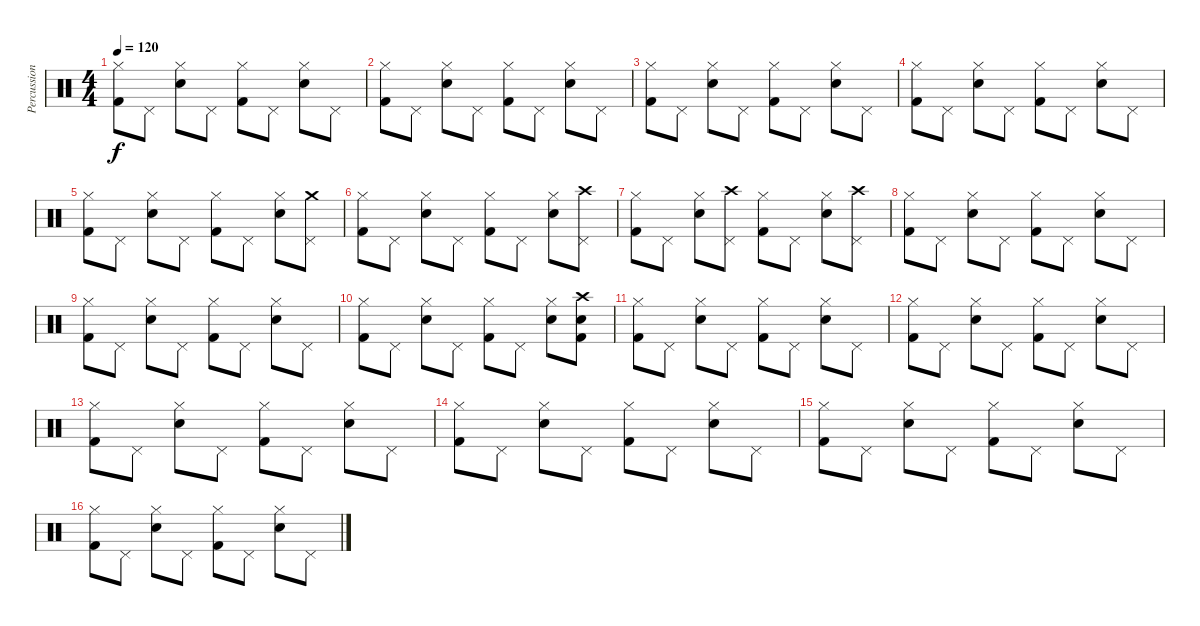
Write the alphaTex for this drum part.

\track ("Percussion" "Percussion") {instrument percussion}
\staff {score}
\articulation defaults
\ts (4 4)
\tempo 120
\clef neutral
\ks c
("Kick (hit) 2" "Hi-Hat (closed)").8{dy f} "Pedal Hi-Hat (hit)".8 ("Snare (hit) 2" "Hi-Hat (closed)").8 "Pedal Hi-Hat (hit)".8 ("Kick (hit) 2" "Hi-Hat (closed)").8 "Pedal Hi-Hat (hit)".8 ("Snare (hit) 2" "Hi-Hat (closed)").8 "Pedal Hi-Hat (hit)".8 |
("Kick (hit) 2" "Hi-Hat (closed)").8 "Pedal Hi-Hat (hit)".8 ("Snare (hit) 2" "Hi-Hat (closed)").8 "Pedal Hi-Hat (hit)".8 ("Kick (hit) 2" "Hi-Hat (closed)").8 "Pedal Hi-Hat (hit)".8 ("Snare (hit) 2" "Hi-Hat (closed)").8 "Pedal Hi-Hat (hit)".8 |
("Kick (hit) 2" "Hi-Hat (closed)").8 "Pedal Hi-Hat (hit)".8 ("Snare (hit) 2" "Hi-Hat (closed)").8 "Pedal Hi-Hat (hit)".8 ("Kick (hit) 2" "Hi-Hat (closed)").8 "Pedal Hi-Hat (hit)".8 ("Snare (hit) 2" "Hi-Hat (closed)").8 "Pedal Hi-Hat (hit)".8 |
("Kick (hit) 2" "Hi-Hat (closed)").8 "Pedal Hi-Hat (hit)".8 ("Snare (hit) 2" "Hi-Hat (closed)").8 "Pedal Hi-Hat (hit)".8 ("Kick (hit) 2" "Hi-Hat (closed)").8 "Pedal Hi-Hat (hit)".8 ("Snare (hit) 2" "Hi-Hat (closed)").8 "Pedal Hi-Hat (hit)".8 |
("Kick (hit) 2" "Hi-Hat (closed)").8 "Pedal Hi-Hat (hit)".8 ("Snare (hit) 2" "Hi-Hat (closed)").8 "Pedal Hi-Hat (hit)".8 ("Kick (hit) 2" "Hi-Hat (closed)").8 "Pedal Hi-Hat (hit)".8 ("Snare (hit) 2" "Hi-Hat (closed)").8 ("Pedal Hi-Hat (hit)" "Crash medium (hit)").8 |
("Kick (hit) 2" "Hi-Hat (closed)").8 "Pedal Hi-Hat (hit)".8 ("Snare (hit) 2" "Hi-Hat (closed)").8 "Pedal Hi-Hat (hit)".8 ("Kick (hit) 2" "Hi-Hat (closed)").8 "Pedal Hi-Hat (hit)".8 ("Snare (hit) 2" "Hi-Hat (closed)").8 ("Pedal Hi-Hat (hit)" "Crash high (hit)").8 |
("Kick (hit) 2" "Hi-Hat (closed)").8 "Pedal Hi-Hat (hit)".8 ("Snare (hit) 2" "Hi-Hat (closed)").8 ("Pedal Hi-Hat (hit)" "Crash high (hit)").8 ("Kick (hit) 2" "Hi-Hat (closed)").8 "Pedal Hi-Hat (hit)".8 ("Snare (hit) 2" "Hi-Hat (closed)").8 ("Pedal Hi-Hat (hit)" "Crash high (hit)").8 |
("Kick (hit) 2" "Hi-Hat (closed)").8 "Pedal Hi-Hat (hit)".8 ("Snare (hit) 2" "Hi-Hat (closed)").8 "Pedal Hi-Hat (hit)".8 ("Kick (hit) 2" "Hi-Hat (closed)").8 "Pedal Hi-Hat (hit)".8 ("Snare (hit) 2" "Hi-Hat (closed)").8 "Pedal Hi-Hat (hit)".8 |
("Kick (hit) 2" "Hi-Hat (closed)").8 "Pedal Hi-Hat (hit)".8 ("Snare (hit) 2" "Hi-Hat (closed)").8 "Pedal Hi-Hat (hit)".8 ("Kick (hit) 2" "Hi-Hat (closed)").8 "Pedal Hi-Hat (hit)".8 ("Snare (hit) 2" "Hi-Hat (closed)").8 "Pedal Hi-Hat (hit)".8 |
("Kick (hit) 2" "Hi-Hat (closed)").8 "Pedal Hi-Hat (hit)".8 ("Snare (hit) 2" "Hi-Hat (closed)").8 "Pedal Hi-Hat (hit)".8 ("Kick (hit) 2" "Hi-Hat (closed)").8 "Pedal Hi-Hat (hit)".8 ("Snare (hit) 2" "Hi-Hat (closed)").8 ("Kick (hit) 2" "Snare (hit) 2" "Crash high (hit)").8 |
("Kick (hit) 2" "Hi-Hat (closed)").8 "Pedal Hi-Hat (hit)".8 ("Snare (hit) 2" "Hi-Hat (closed)").8 "Pedal Hi-Hat (hit)".8 ("Kick (hit) 2" "Hi-Hat (closed)").8 "Pedal Hi-Hat (hit)".8 ("Snare (hit) 2" "Hi-Hat (closed)").8 "Pedal Hi-Hat (hit)".8 |
("Kick (hit) 2" "Hi-Hat (closed)").8 "Pedal Hi-Hat (hit)".8 ("Snare (hit) 2" "Hi-Hat (closed)").8 "Pedal Hi-Hat (hit)".8 ("Kick (hit) 2" "Hi-Hat (closed)").8 "Pedal Hi-Hat (hit)".8 ("Snare (hit) 2" "Hi-Hat (closed)").8 "Pedal Hi-Hat (hit)".8 |
("Kick (hit) 2" "Hi-Hat (closed)").8 "Pedal Hi-Hat (hit)".8 ("Snare (hit) 2" "Hi-Hat (closed)").8 "Pedal Hi-Hat (hit)".8 ("Kick (hit) 2" "Hi-Hat (closed)").8 "Pedal Hi-Hat (hit)".8 ("Snare (hit) 2" "Hi-Hat (closed)").8 "Pedal Hi-Hat (hit)".8 |
("Kick (hit) 2" "Hi-Hat (closed)").8 "Pedal Hi-Hat (hit)".8 ("Snare (hit) 2" "Hi-Hat (closed)").8 "Pedal Hi-Hat (hit)".8 ("Kick (hit) 2" "Hi-Hat (closed)").8 "Pedal Hi-Hat (hit)".8 ("Snare (hit) 2" "Hi-Hat (closed)").8 "Pedal Hi-Hat (hit)".8 |
("Kick (hit) 2" "Hi-Hat (closed)").8 "Pedal Hi-Hat (hit)".8 ("Snare (hit) 2" "Hi-Hat (closed)").8 "Pedal Hi-Hat (hit)".8 ("Kick (hit) 2" "Hi-Hat (closed)").8 "Pedal Hi-Hat (hit)".8 ("Snare (hit) 2" "Hi-Hat (closed)").8 "Pedal Hi-Hat (hit)".8 |
("Kick (hit) 2" "Hi-Hat (closed)").8 "Pedal Hi-Hat (hit)".8 ("Snare (hit) 2" "Hi-Hat (closed)").8 "Pedal Hi-Hat (hit)".8 ("Kick (hit) 2" "Hi-Hat (closed)").8 "Pedal Hi-Hat (hit)".8 ("Snare (hit) 2" "Hi-Hat (closed)").8 "Pedal Hi-Hat (hit)".8
